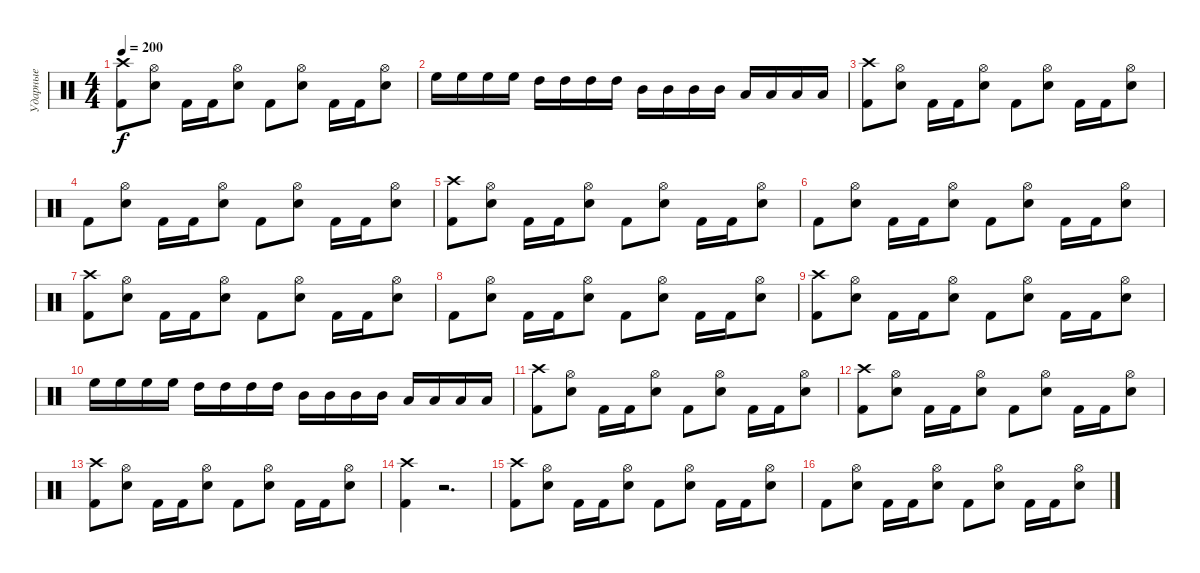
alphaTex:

\track ("Ударные" "Ударные") {instrument percussion}
\staff {score}
\articulation defaults
\ts (4 4)
\tempo 200
\clef neutral
\ks c
("Crash high (hit)" "Kick (hit) 2").8{dy f} ("Hi-Hat (open)" "Snare (hit) 2").8 "Kick (hit) 2".16 "Kick (hit) 2".16 ("Hi-Hat (open)" "Snare (hit) 2").8 "Kick (hit) 2".8 ("Hi-Hat (open)" "Snare (hit) 2").8 "Kick (hit) 2".16 "Kick (hit) 2".16 ("Hi-Hat (open)" "Snare (hit) 2").8 |
"High Floor Tom (hit)".16 "High Floor Tom (hit)".16 "High Floor Tom (hit)".16 "High Floor Tom (hit)".16 "High Tom (hit)".16 "High Tom (hit)".16 "High Tom (hit)".16 "High Tom (hit)".16 "Mid Tom (hit)".16 "Mid Tom (hit)".16 "Mid Tom (hit)".16 "Mid Tom (hit)".16 "Low Tom (hit)".16 "Low Tom (hit)".16 "Low Tom (hit)".16 "Low Tom (hit)".16 |
("Crash high (hit)" "Kick (hit) 2").8 ("Hi-Hat (open)" "Snare (hit) 2").8 "Kick (hit) 2".16 "Kick (hit) 2".16 ("Hi-Hat (open)" "Snare (hit) 2").8 "Kick (hit) 2".8 ("Hi-Hat (open)" "Snare (hit) 2").8 "Kick (hit) 2".16 "Kick (hit) 2".16 ("Hi-Hat (open)" "Snare (hit) 2").8 |
"Kick (hit) 2".8 ("Hi-Hat (open)" "Snare (hit) 2").8 "Kick (hit) 2".16 "Kick (hit) 2".16 ("Hi-Hat (open)" "Snare (hit) 2").8 "Kick (hit) 2".8 ("Hi-Hat (open)" "Snare (hit) 2").8 "Kick (hit) 2".16 "Kick (hit) 2".16 ("Hi-Hat (open)" "Snare (hit) 2").8 |
("Crash high (hit)" "Kick (hit) 2").8 ("Hi-Hat (open)" "Snare (hit) 2").8 "Kick (hit) 2".16 "Kick (hit) 2".16 ("Hi-Hat (open)" "Snare (hit) 2").8 "Kick (hit) 2".8 ("Hi-Hat (open)" "Snare (hit) 2").8 "Kick (hit) 2".16 "Kick (hit) 2".16 ("Hi-Hat (open)" "Snare (hit) 2").8 |
"Kick (hit) 2".8 ("Hi-Hat (open)" "Snare (hit) 2").8 "Kick (hit) 2".16 "Kick (hit) 2".16 ("Hi-Hat (open)" "Snare (hit) 2").8 "Kick (hit) 2".8 ("Hi-Hat (open)" "Snare (hit) 2").8 "Kick (hit) 2".16 "Kick (hit) 2".16 ("Hi-Hat (open)" "Snare (hit) 2").8 |
("Crash high (hit)" "Kick (hit) 2").8 ("Hi-Hat (open)" "Snare (hit) 2").8 "Kick (hit) 2".16 "Kick (hit) 2".16 ("Hi-Hat (open)" "Snare (hit) 2").8 "Kick (hit) 2".8 ("Hi-Hat (open)" "Snare (hit) 2").8 "Kick (hit) 2".16 "Kick (hit) 2".16 ("Hi-Hat (open)" "Snare (hit) 2").8 |
"Kick (hit) 2".8 ("Hi-Hat (open)" "Snare (hit) 2").8 "Kick (hit) 2".16 "Kick (hit) 2".16 ("Hi-Hat (open)" "Snare (hit) 2").8 "Kick (hit) 2".8 ("Hi-Hat (open)" "Snare (hit) 2").8 "Kick (hit) 2".16 "Kick (hit) 2".16 ("Hi-Hat (open)" "Snare (hit) 2").8 |
("Crash high (hit)" "Kick (hit) 2").8 ("Hi-Hat (open)" "Snare (hit) 2").8 "Kick (hit) 2".16 "Kick (hit) 2".16 ("Hi-Hat (open)" "Snare (hit) 2").8 "Kick (hit) 2".8 ("Hi-Hat (open)" "Snare (hit) 2").8 "Kick (hit) 2".16 "Kick (hit) 2".16 ("Hi-Hat (open)" "Snare (hit) 2").8 |
"High Floor Tom (hit)".16 "High Floor Tom (hit)".16 "High Floor Tom (hit)".16 "High Floor Tom (hit)".16 "High Tom (hit)".16 "High Tom (hit)".16 "High Tom (hit)".16 "High Tom (hit)".16 "Mid Tom (hit)".16 "Mid Tom (hit)".16 "Mid Tom (hit)".16 "Mid Tom (hit)".16 "Low Tom (hit)".16 "Low Tom (hit)".16 "Low Tom (hit)".16 "Low Tom (hit)".16 |
("Crash high (hit)" "Kick (hit) 2").8 ("Hi-Hat (open)" "Snare (hit) 2").8 "Kick (hit) 2".16 "Kick (hit) 2".16 ("Hi-Hat (open)" "Snare (hit) 2").8 "Kick (hit) 2".8 ("Hi-Hat (open)" "Snare (hit) 2").8 "Kick (hit) 2".16 "Kick (hit) 2".16 ("Hi-Hat (open)" "Snare (hit) 2").8 |
("Crash high (hit)" "Kick (hit) 2").8 ("Hi-Hat (open)" "Snare (hit) 2").8 "Kick (hit) 2".16 "Kick (hit) 2".16 ("Hi-Hat (open)" "Snare (hit) 2").8 "Kick (hit) 2".8 ("Hi-Hat (open)" "Snare (hit) 2").8 "Kick (hit) 2".16 "Kick (hit) 2".16 ("Hi-Hat (open)" "Snare (hit) 2").8 |
("Crash high (hit)" "Kick (hit) 2").8 ("Hi-Hat (open)" "Snare (hit) 2").8 "Kick (hit) 2".16 "Kick (hit) 2".16 ("Hi-Hat (open)" "Snare (hit) 2").8 "Kick (hit) 2".8 ("Hi-Hat (open)" "Snare (hit) 2").8 "Kick (hit) 2".16 "Kick (hit) 2".16 ("Hi-Hat (open)" "Snare (hit) 2").8 |
("Crash high (hit)" "Kick (hit) 2").4 r.2{d} |
("Crash high (hit)" "Kick (hit) 2").8 ("Hi-Hat (open)" "Snare (hit) 2").8 "Kick (hit) 2".16 "Kick (hit) 2".16 ("Hi-Hat (open)" "Snare (hit) 2").8 "Kick (hit) 2".8 ("Hi-Hat (open)" "Snare (hit) 2").8 "Kick (hit) 2".16 "Kick (hit) 2".16 ("Hi-Hat (open)" "Snare (hit) 2").8 |
"Kick (hit) 2".8 ("Hi-Hat (open)" "Snare (hit) 2").8 "Kick (hit) 2".16 "Kick (hit) 2".16 ("Hi-Hat (open)" "Snare (hit) 2").8 "Kick (hit) 2".8 ("Hi-Hat (open)" "Snare (hit) 2").8 "Kick (hit) 2".16 "Kick (hit) 2".16 ("Hi-Hat (open)" "Snare (hit) 2").8
